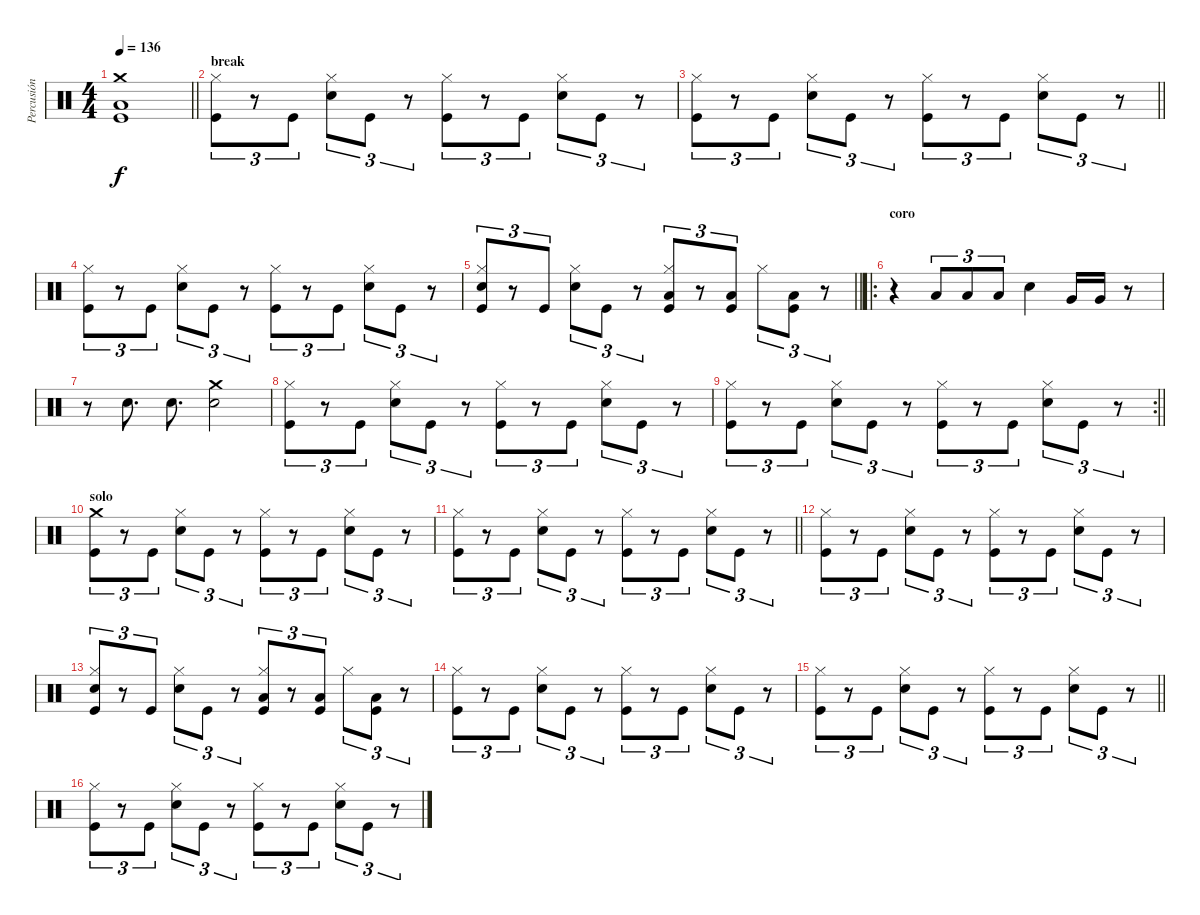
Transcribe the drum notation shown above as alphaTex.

\track ("Percusión" "Percusión") {instrument percussion}
\staff {score}
\articulation defaults
\ts (4 4)
\tempo 136
\clef neutral
\barLineRight lightlight
\ks c
("Crash medium (hit)" "Low Floor Tom (hit)" "Kick (hit)").1{dy f} |
\section ("" "break")
("Hi-Hat (closed)" "Kick (hit)").8{tu (3 2)} r.8{tu (3 2)} "Kick (hit)".8{tu (3 2)} ("Hi-Hat (closed)" "Snare (hit) 2").8{tu (3 2)} "Kick (hit)".8{tu (3 2)} r.8{tu (3 2)} ("Hi-Hat (closed)" "Kick (hit)").8{tu (3 2)} r.8{tu (3 2)} "Kick (hit)".8{tu (3 2)} ("Hi-Hat (closed)" "Snare (hit) 2").8{tu (3 2)} "Kick (hit)".8{tu (3 2)} r.8{tu (3 2)} |
\barLineRight lightlight
("Hi-Hat (closed)" "Kick (hit)").8{tu (3 2)} r.8{tu (3 2)} "Kick (hit)".8{tu (3 2)} ("Hi-Hat (closed)" "Snare (hit) 2").8{tu (3 2)} "Kick (hit)".8{tu (3 2)} r.8{tu (3 2)} ("Hi-Hat (closed)" "Kick (hit)").8{tu (3 2)} r.8{tu (3 2)} "Kick (hit)".8{tu (3 2)} ("Hi-Hat (closed)" "Snare (hit) 2").8{tu (3 2)} "Kick (hit)".8{tu (3 2)} r.8{tu (3 2)} |
("Hi-Hat (closed)" "Kick (hit)").8{tu (3 2)} r.8{tu (3 2)} "Kick (hit)".8{tu (3 2)} ("Hi-Hat (closed)" "Snare (hit) 2").8{tu (3 2)} "Kick (hit)".8{tu (3 2)} r.8{tu (3 2)} ("Hi-Hat (closed)" "Kick (hit)").8{tu (3 2)} r.8{tu (3 2)} "Kick (hit)".8{tu (3 2)} ("Hi-Hat (closed)" "Snare (hit) 2").8{tu (3 2)} "Kick (hit)".8{tu (3 2)} r.8{tu (3 2)} |
\barLineRight lightlight
("Hi-Hat (closed)" "Snare (hit) 2" "Kick (hit)").8{tu (3 2)} r.8{tu (3 2)} "Kick (hit)".8{tu (3 2)} ("Hi-Hat (closed)" "Snare (hit) 2").8{tu (3 2)} "Kick (hit)".8{tu (3 2)} r.8{tu (3 2)} ("Hi-Hat (closed)" "Low Tom (hit)" "Kick (hit)").8{tu (3 2)} r.8{tu (3 2)} ("Low Tom (hit)" "Kick (hit)").8{tu (3 2)} "Hi-Hat (closed)".8{tu (3 2)} ("Low Tom (hit)" "Kick (hit)").8{tu (3 2)} r.8{tu (3 2)} |
\ro
\section ("" "coro")
r.4 "Low Tom (hit)".8{tu (3 2)} "Low Tom (hit)".8{tu (3 2)} "Low Tom (hit)".8{tu (3 2)} "Snare (hit) 2".4 "Very Low Tom (hit)".16 "Very Low Tom (hit)".16 r.8 |
r.8 "Snare (hit) 2".8{d} "Snare (hit) 2".8{d} ("Crash medium (hit)" "Snare (hit) 2").2 |
("Hi-Hat (closed)" "Kick (hit)").8{tu (3 2)} r.8{tu (3 2)} "Kick (hit)".8{tu (3 2)} ("Hi-Hat (closed)" "Snare (hit) 2").8{tu (3 2)} "Kick (hit)".8{tu (3 2)} r.8{tu (3 2)} ("Hi-Hat (closed)" "Kick (hit)").8{tu (3 2)} r.8{tu (3 2)} "Kick (hit)".8{tu (3 2)} ("Hi-Hat (closed)" "Snare (hit) 2").8{tu (3 2)} "Kick (hit)".8{tu (3 2)} r.8{tu (3 2)} |
\rc 2
\barLineRight lightlight
("Hi-Hat (closed)" "Kick (hit)").8{tu (3 2)} r.8{tu (3 2)} "Kick (hit)".8{tu (3 2)} ("Hi-Hat (closed)" "Snare (hit) 2").8{tu (3 2)} "Kick (hit)".8{tu (3 2)} r.8{tu (3 2)} ("Hi-Hat (closed)" "Kick (hit)").8{tu (3 2)} r.8{tu (3 2)} "Kick (hit)".8{tu (3 2)} ("Hi-Hat (closed)" "Snare (hit) 2").8{tu (3 2)} "Kick (hit)".8{tu (3 2)} r.8{tu (3 2)} |
\section ("" "solo")
("Crash medium (hit)" "Kick (hit)").8{tu (3 2)} r.8{tu (3 2)} "Kick (hit)".8{tu (3 2)} ("Hi-Hat (closed)" "Snare (hit) 2").8{tu (3 2)} "Kick (hit)".8{tu (3 2)} r.8{tu (3 2)} ("Hi-Hat (closed)" "Kick (hit)").8{tu (3 2)} r.8{tu (3 2)} "Kick (hit)".8{tu (3 2)} ("Hi-Hat (closed)" "Snare (hit) 2").8{tu (3 2)} "Kick (hit)".8{tu (3 2)} r.8{tu (3 2)} |
\barLineRight lightlight
("Hi-Hat (closed)" "Kick (hit)").8{tu (3 2)} r.8{tu (3 2)} "Kick (hit)".8{tu (3 2)} ("Hi-Hat (closed)" "Snare (hit) 2").8{tu (3 2)} "Kick (hit)".8{tu (3 2)} r.8{tu (3 2)} ("Hi-Hat (closed)" "Kick (hit)").8{tu (3 2)} r.8{tu (3 2)} "Kick (hit)".8{tu (3 2)} ("Hi-Hat (closed)" "Snare (hit) 2").8{tu (3 2)} "Kick (hit)".8{tu (3 2)} r.8{tu (3 2)} |
("Hi-Hat (closed)" "Kick (hit)").8{tu (3 2)} r.8{tu (3 2)} "Kick (hit)".8{tu (3 2)} ("Hi-Hat (closed)" "Snare (hit) 2").8{tu (3 2)} "Kick (hit)".8{tu (3 2)} r.8{tu (3 2)} ("Hi-Hat (closed)" "Kick (hit)").8{tu (3 2)} r.8{tu (3 2)} "Kick (hit)".8{tu (3 2)} ("Hi-Hat (closed)" "Snare (hit) 2").8{tu (3 2)} "Kick (hit)".8{tu (3 2)} r.8{tu (3 2)} |
("Hi-Hat (closed)" "Snare (hit) 2" "Kick (hit)").8{tu (3 2)} r.8{tu (3 2)} "Kick (hit)".8{tu (3 2)} ("Hi-Hat (closed)" "Snare (hit) 2").8{tu (3 2)} "Kick (hit)".8{tu (3 2)} r.8{tu (3 2)} ("Hi-Hat (closed)" "Low Tom (hit)" "Kick (hit)").8{tu (3 2)} r.8{tu (3 2)} ("Low Tom (hit)" "Kick (hit)").8{tu (3 2)} "Hi-Hat (closed)".8{tu (3 2)} ("Low Tom (hit)" "Kick (hit)").8{tu (3 2)} r.8{tu (3 2)} |
("Hi-Hat (closed)" "Kick (hit)").8{tu (3 2)} r.8{tu (3 2)} "Kick (hit)".8{tu (3 2)} ("Hi-Hat (closed)" "Snare (hit) 2").8{tu (3 2)} "Kick (hit)".8{tu (3 2)} r.8{tu (3 2)} ("Hi-Hat (closed)" "Kick (hit)").8{tu (3 2)} r.8{tu (3 2)} "Kick (hit)".8{tu (3 2)} ("Hi-Hat (closed)" "Snare (hit) 2").8{tu (3 2)} "Kick (hit)".8{tu (3 2)} r.8{tu (3 2)} |
\barLineRight lightlight
("Hi-Hat (closed)" "Kick (hit)").8{tu (3 2)} r.8{tu (3 2)} "Kick (hit)".8{tu (3 2)} ("Hi-Hat (closed)" "Snare (hit) 2").8{tu (3 2)} "Kick (hit)".8{tu (3 2)} r.8{tu (3 2)} ("Hi-Hat (closed)" "Kick (hit)").8{tu (3 2)} r.8{tu (3 2)} "Kick (hit)".8{tu (3 2)} ("Hi-Hat (closed)" "Snare (hit) 2").8{tu (3 2)} "Kick (hit)".8{tu (3 2)} r.8{tu (3 2)} |
("Hi-Hat (closed)" "Kick (hit)").8{tu (3 2)} r.8{tu (3 2)} "Kick (hit)".8{tu (3 2)} ("Hi-Hat (closed)" "Snare (hit) 2").8{tu (3 2)} "Kick (hit)".8{tu (3 2)} r.8{tu (3 2)} ("Hi-Hat (closed)" "Kick (hit)").8{tu (3 2)} r.8{tu (3 2)} "Kick (hit)".8{tu (3 2)} ("Hi-Hat (closed)" "Snare (hit) 2").8{tu (3 2)} "Kick (hit)".8{tu (3 2)} r.8{tu (3 2)}
